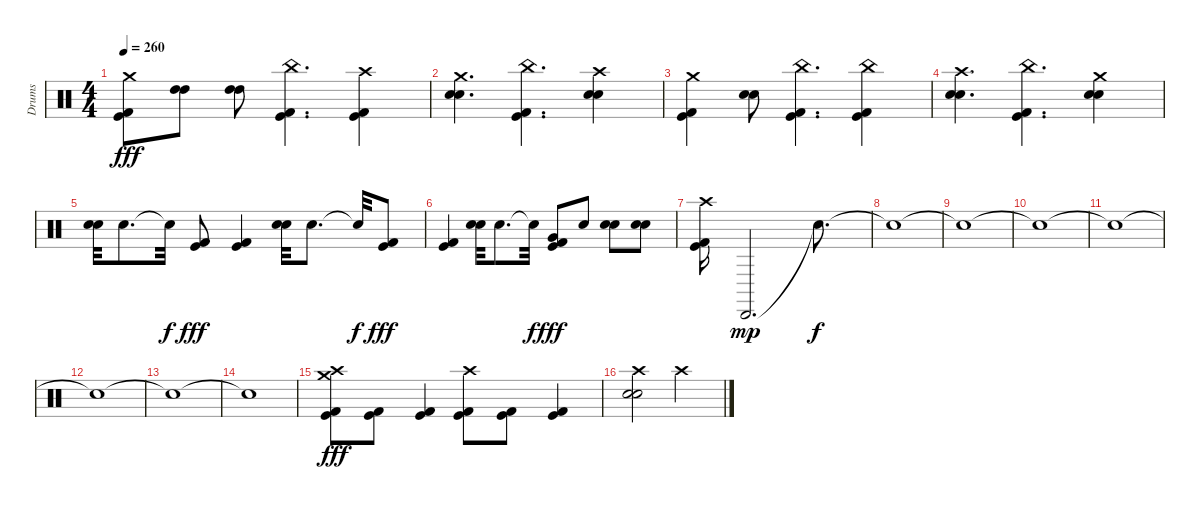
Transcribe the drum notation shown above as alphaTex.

\track ("Drums" "Drums") {instrument percussion}
\staff {score}
\articulation defaults
\ts (4 4)
\tempo 260
\clef neutral
\ks c
("Kick (hit)" "Kick (hit) 2" "Crash medium (hit)").8{dy fff} ("High Tom (hit)" "High Tom (hit)").8 ("High Tom (hit)" "High Tom (hit)").8 ("Kick (hit)" "Kick (hit) 2" "China (hit)").4{d} ("Kick (hit)" "Kick (hit) 2" "Crash high (hit)").4 |
("Electric Snare (hit)" "Electric Snare (hit)" "Crash medium (hit)").4{d} ("Kick (hit)" "Kick (hit) 2" "China (hit)").4{d} ("Electric Snare (hit)" "Electric Snare (hit)" "Crash high (hit)").4 |
("Kick (hit)" "Kick (hit) 2" "Crash medium (hit)").4 ("Electric Snare (hit)" "Electric Snare (hit)").8 ("Kick (hit)" "Kick (hit) 2" "China (hit)").4{d} ("Kick (hit)" "Kick (hit) 2" "China (hit)").4 |
("Electric Snare (hit)" "Electric Snare (hit)" "Crash high (hit)").4{d} ("Kick (hit)" "Kick (hit) 2" "China (hit)").4{d} ("Electric Snare (hit)" "Electric Snare (hit)" "Crash medium (hit)").4 |
("Electric Snare (hit)" "Electric Snare (hit)").32 "Electric Snare (hit)".8{d} "Snare (hit)"{t}.32{dy f} ("Kick (hit)" "Kick (hit) 2").8{dy fff} ("Kick (hit)" "Kick (hit) 2").4 ("Electric Snare (hit)" "Electric Snare (hit)").32 "Electric Snare (hit)".8{d} "Snare (hit)"{t}.32{dy f} ("Kick (hit)" "Kick (hit) 2").8{dy fff} |
("Kick (hit)" "Kick (hit) 2").4 ("Electric Snare (hit)" "Electric Snare (hit)").32 "Electric Snare (hit)".8{d} "Snare (hit)"{t}.32{dy f} ("Kick (hit)" "Kick (hit) 2" "Very Low Tom (hit)").8{dy fff} "Electric Snare (hit)".8 ("Electric Snare (hit)" "Electric Snare (hit)").8 ("Electric Snare (hit)" "Electric Snare (hit)").8 |
("Kick (hit)" "Kick (hit) 2" "Crash high (hit)").16 "Cabasa (hit)".2{d dy mp} "Snare (hit)"{t}.8{d dy f} |
"Snare (hit)"{t}.1 |
"Snare (hit)"{t}.1 |
"Snare (hit)"{t}.1 |
"Snare (hit)"{t}.1 |
"Snare (hit)"{t}.1 |
"Snare (hit)"{t}.1 |
"Snare (hit)"{t}.1 |
("Kick (hit)" "Kick (hit) 2" "Crash high (hit)" "Crash medium (hit)").8{dy fff} ("Kick (hit)" "Kick (hit) 2").8 ("Kick (hit)" "Kick (hit) 2").4 ("Kick (hit)" "Kick (hit) 2" "Crash high (hit)").8 ("Kick (hit)" "Kick (hit) 2").8 ("Kick (hit)" "Kick (hit) 2").4 |
("Electric Snare (hit)" "Electric Snare (hit)" "Crash high (hit)").2 "Crash high (hit)".2
